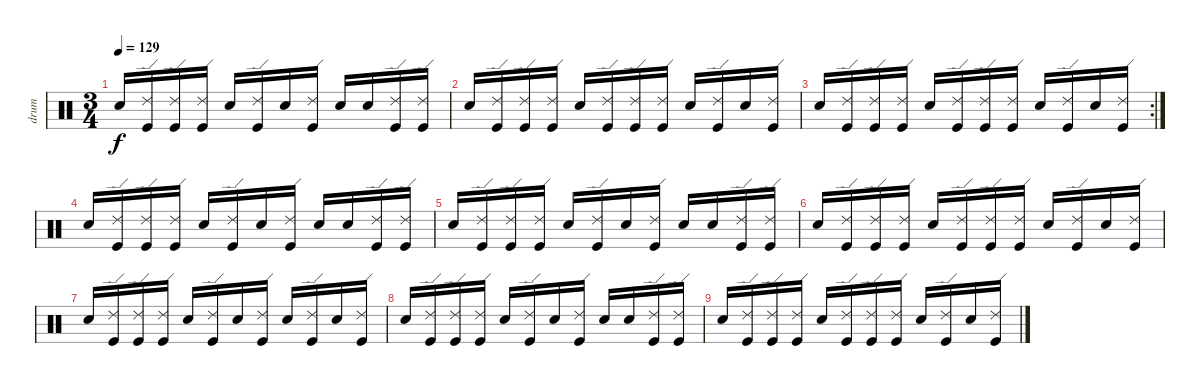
\track ("drum" "drum") {instrument percussion}
\staff {score}
\articulation defaults
\ts (3 4)
\tempo 129
\clef neutral
\ks c "Electric Snare (hit)".16{dy f}
("Kick (hit)" "Ride (edge) 2").16 ("Kick (hit)" "Ride (edge) 2").16 ("Kick (hit)" "Ride (edge) 2").16 "Electric Snare (hit)".16 ("Kick (hit)" "Ride (edge) 2").16 "Electric Snare (hit)".16 ("Kick (hit)" "Ride (edge) 2").16 "Electric Snare (hit)".16 "Electric Snare (hit)".16 ("Kick (hit)" "Ride (edge) 2").16 ("Kick (hit)" "Ride (edge) 2").16 |
"Electric Snare (hit)".16 ("Kick (hit)" "Ride (edge) 2").16 ("Kick (hit)" "Ride (edge) 2").16 ("Kick (hit)" "Ride (edge) 2").16 "Electric Snare (hit)".16 ("Kick (hit)" "Ride (edge) 2").16 ("Kick (hit)" "Ride (edge) 2").16 ("Kick (hit)" "Ride (edge) 2").16 "Electric Snare (hit)".16 ("Kick (hit)" "Ride (edge) 2").16 "Electric Snare (hit)".16 ("Kick (hit)" "Ride (edge) 2").16 |
\rc 2 "Electric Snare (hit)".16
("Kick (hit)" "Ride (edge) 2").16 ("Kick (hit)" "Ride (edge) 2").16 ("Kick (hit)" "Ride (edge) 2").16 "Electric Snare (hit)".16 ("Kick (hit)" "Ride (edge) 2").16 ("Kick (hit)" "Ride (edge) 2").16 ("Kick (hit)" "Ride (edge) 2").16 "Electric Snare (hit)".16 ("Kick (hit)" "Ride (edge) 2").16 "Electric Snare (hit)".16 ("Kick (hit)" "Ride (edge) 2").16 |
"Electric Snare (hit)".16 ("Kick (hit)" "Ride (edge) 2").16 ("Kick (hit)" "Ride (edge) 2").16 ("Kick (hit)" "Ride (edge) 2").16 "Electric Snare (hit)".16 ("Kick (hit)" "Ride (edge) 2").16 "Electric Snare (hit)".16 ("Kick (hit)" "Ride (edge) 2").16 "Electric Snare (hit)".16 "Electric Snare (hit)".16 ("Kick (hit)" "Ride (edge) 2").16 ("Kick (hit)" "Ride (edge) 2").16 |
"Electric Snare (hit)".16 ("Kick (hit)" "Ride (edge) 2").16 ("Kick (hit)" "Ride (edge) 2").16 ("Kick (hit)" "Ride (edge) 2").16 "Electric Snare (hit)".16 ("Kick (hit)" "Ride (edge) 2").16 "Electric Snare (hit)".16 ("Kick (hit)" "Ride (edge) 2").16 "Electric Snare (hit)".16 "Electric Snare (hit)".16 ("Kick (hit)" "Ride (edge) 2").16 ("Kick (hit)" "Ride (edge) 2").16 |
"Electric Snare (hit)".16 ("Kick (hit)" "Ride (edge) 2").16 ("Kick (hit)" "Ride (edge) 2").16 ("Kick (hit)" "Ride (edge) 2").16 "Electric Snare (hit)".16 ("Kick (hit)" "Ride (edge) 2").16 ("Kick (hit)" "Ride (edge) 2").16 ("Kick (hit)" "Ride (edge) 2").16 "Electric Snare (hit)".16 ("Kick (hit)" "Ride (edge) 2").16 "Electric Snare (hit)".16 ("Kick (hit)" "Ride (edge) 2").16 |
"Electric Snare (hit)".16 ("Kick (hit)" "Ride (edge) 2").16 ("Kick (hit)" "Ride (edge) 2").16 ("Kick (hit)" "Ride (edge) 2").16 "Electric Snare (hit)".16 ("Kick (hit)" "Ride (edge) 2").16 "Electric Snare (hit)".16 ("Kick (hit)" "Ride (edge) 2").16 "Electric Snare (hit)".16 ("Kick (hit)" "Ride (edge) 2").16 "Electric Snare (hit)".16 ("Kick (hit)" "Ride (edge) 2").16 |
"Electric Snare (hit)".16{volume 0} ("Kick (hit)" "Ride (edge) 2").16 ("Kick (hit)" "Ride (edge) 2").16 ("Kick (hit)" "Ride (edge) 2").16 "Electric Snare (hit)".16 ("Kick (hit)" "Ride (edge) 2").16 "Electric Snare (hit)".16 ("Kick (hit)" "Ride (edge) 2").16 "Electric Snare (hit)".16 "Electric Snare (hit)".16 ("Kick (hit)" "Ride (edge) 2").16 ("Kick (hit)" "Ride (edge) 2").16 |
"Electric Snare (hit)".16 ("Kick (hit)" "Ride (edge) 2").16 ("Kick (hit)" "Ride (edge) 2").16 ("Kick (hit)" "Ride (edge) 2").16 "Electric Snare (hit)".16 ("Kick (hit)" "Ride (edge) 2").16 ("Kick (hit)" "Ride (edge) 2").16 ("Kick (hit)" "Ride (edge) 2").16 "Electric Snare (hit)".16 ("Kick (hit)" "Ride (edge) 2").16 "Electric Snare (hit)".16 ("Kick (hit)" "Ride (edge) 2").16
